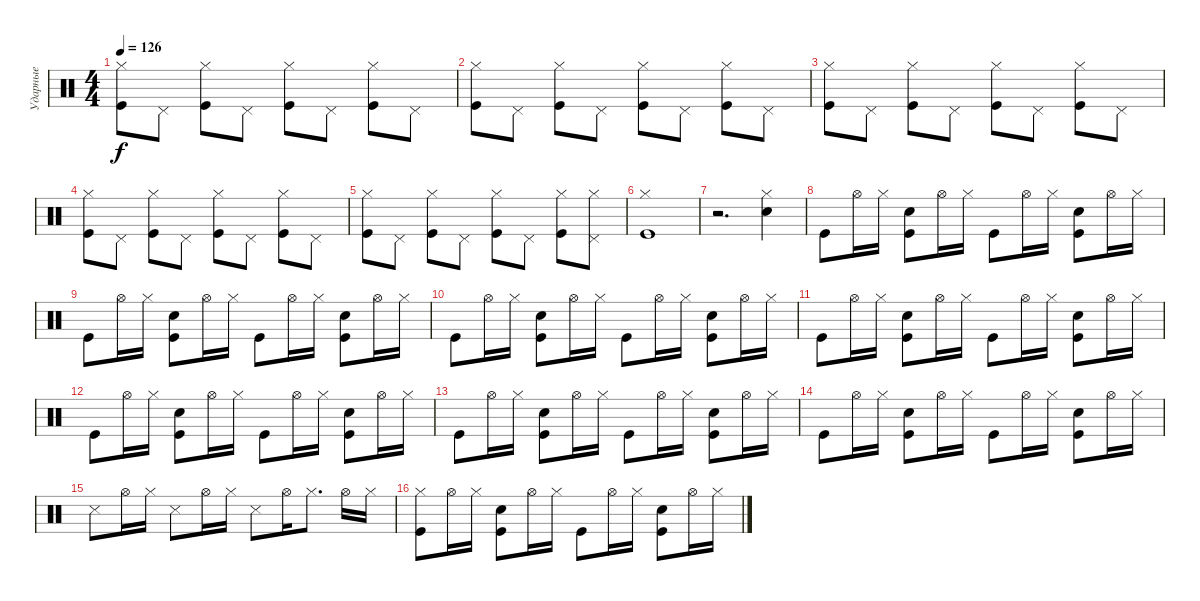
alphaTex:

\track ("Ударные" "Ударные") {instrument percussion}
\staff {score}
\articulation defaults
\ts (4 4)
\tempo 126
\clef neutral
\ks c
("Hi-Hat (closed)" "Kick (hit)").8{dy f} "Pedal Hi-Hat (hit)".8 ("Hi-Hat (closed)" "Kick (hit)").8 "Pedal Hi-Hat (hit)".8 ("Hi-Hat (closed)" "Kick (hit)").8 "Pedal Hi-Hat (hit)".8 ("Hi-Hat (closed)" "Kick (hit)").8 "Pedal Hi-Hat (hit)".8 |
("Hi-Hat (closed)" "Kick (hit)").8 "Pedal Hi-Hat (hit)".8 ("Hi-Hat (closed)" "Kick (hit)").8 "Pedal Hi-Hat (hit)".8 ("Hi-Hat (closed)" "Kick (hit)").8 "Pedal Hi-Hat (hit)".8 ("Hi-Hat (closed)" "Kick (hit)").8 "Pedal Hi-Hat (hit)".8 |
("Hi-Hat (closed)" "Kick (hit)").8 "Pedal Hi-Hat (hit)".8 ("Hi-Hat (closed)" "Kick (hit)").8 "Pedal Hi-Hat (hit)".8 ("Hi-Hat (closed)" "Kick (hit)").8 "Pedal Hi-Hat (hit)".8 ("Hi-Hat (closed)" "Kick (hit)").8 "Pedal Hi-Hat (hit)".8 |
("Hi-Hat (closed)" "Kick (hit)").8 "Pedal Hi-Hat (hit)".8 ("Hi-Hat (closed)" "Kick (hit)").8 "Pedal Hi-Hat (hit)".8 ("Hi-Hat (closed)" "Kick (hit)").8 "Pedal Hi-Hat (hit)".8 ("Hi-Hat (closed)" "Kick (hit)").8 "Pedal Hi-Hat (hit)".8 |
("Hi-Hat (closed)" "Kick (hit)").8 "Pedal Hi-Hat (hit)".8 ("Hi-Hat (closed)" "Kick (hit)").8 "Pedal Hi-Hat (hit)".8 ("Hi-Hat (closed)" "Kick (hit)").8 "Pedal Hi-Hat (hit)".8 ("Hi-Hat (closed)" "Kick (hit)").8 ("Pedal Hi-Hat (hit)" "Hi-Hat (closed)").8 |
("Kick (hit)" "Hi-Hat (closed)").1 |
r.2{d} ("Snare (hit) 2" "Hi-Hat (closed)").4 |
"Kick (hit)".8 "Hi-Hat (open)".16 "Hi-Hat (closed)".16 ("Kick (hit)" "Snare (hit) 2").8 "Hi-Hat (open)".16 "Hi-Hat (closed)".16 "Kick (hit)".8 "Hi-Hat (open)".16 "Hi-Hat (closed)".16 ("Kick (hit)" "Snare (hit) 2").8 "Hi-Hat (open)".16 "Hi-Hat (closed)".16 |
"Kick (hit)".8 "Hi-Hat (open)".16 "Hi-Hat (closed)".16 ("Kick (hit)" "Snare (hit) 2").8 "Hi-Hat (open)".16 "Hi-Hat (closed)".16 "Kick (hit)".8 "Hi-Hat (open)".16 "Hi-Hat (closed)".16 ("Kick (hit)" "Snare (hit) 2").8 "Hi-Hat (open)".16 "Hi-Hat (closed)".16 |
"Kick (hit)".8 "Hi-Hat (open)".16 "Hi-Hat (closed)".16 ("Kick (hit)" "Snare (hit) 2").8 "Hi-Hat (open)".16 "Hi-Hat (closed)".16 "Kick (hit)".8 "Hi-Hat (open)".16 "Hi-Hat (closed)".16 ("Kick (hit)" "Snare (hit) 2").8 "Hi-Hat (open)".16 "Hi-Hat (closed)".16 |
"Kick (hit)".8 "Hi-Hat (open)".16 "Hi-Hat (closed)".16 ("Kick (hit)" "Snare (hit) 2").8 "Hi-Hat (open)".16 "Hi-Hat (closed)".16 "Kick (hit)".8 "Hi-Hat (open)".16 "Hi-Hat (closed)".16 ("Kick (hit)" "Snare (hit) 2").8 "Hi-Hat (open)".16 "Hi-Hat (closed)".16 |
"Kick (hit)".8 "Hi-Hat (open)".16 "Hi-Hat (closed)".16 ("Kick (hit)" "Snare (hit) 2").8 "Hi-Hat (open)".16 "Hi-Hat (closed)".16 "Kick (hit)".8 "Hi-Hat (open)".16 "Hi-Hat (closed)".16 ("Kick (hit)" "Snare (hit) 2").8 "Hi-Hat (open)".16 "Hi-Hat (closed)".16 |
"Kick (hit)".8 "Hi-Hat (open)".16 "Hi-Hat (closed)".16 ("Kick (hit)" "Snare (hit) 2").8 "Hi-Hat (open)".16 "Hi-Hat (closed)".16 "Kick (hit)".8 "Hi-Hat (open)".16 "Hi-Hat (closed)".16 ("Kick (hit)" "Snare (hit) 2").8 "Hi-Hat (open)".16 "Hi-Hat (closed)".16 |
"Kick (hit)".8 "Hi-Hat (open)".16 "Hi-Hat (closed)".16 ("Kick (hit)" "Snare (hit) 2").8 "Hi-Hat (open)".16 "Hi-Hat (closed)".16 "Kick (hit)".8 "Hi-Hat (open)".16 "Hi-Hat (closed)".16 ("Kick (hit)" "Snare (hit) 2").8 "Hi-Hat (open)".16 "Hi-Hat (closed)".16 |
"Snare (side stick) 3".8 "Hi-Hat (open)".16 "Hi-Hat (closed)".16 "Snare (side stick) 3".8 "Hi-Hat (open)".16 "Hi-Hat (closed)".16 "Snare (side stick) 3".8 "Hi-Hat (open)".16 "Hi-Hat (closed)".8{d} "Hi-Hat (open)".16 "Hi-Hat (closed)".16 |
("Kick (hit)" "Hi-Hat (closed)").8 "Hi-Hat (open)".16 "Hi-Hat (closed)".16 ("Kick (hit)" "Snare (hit) 2").8 "Hi-Hat (open)".16 "Hi-Hat (closed)".16 "Kick (hit)".8 "Hi-Hat (open)".16 "Hi-Hat (closed)".16 ("Kick (hit)" "Snare (hit) 2").8 "Hi-Hat (open)".16 "Hi-Hat (closed)".16
